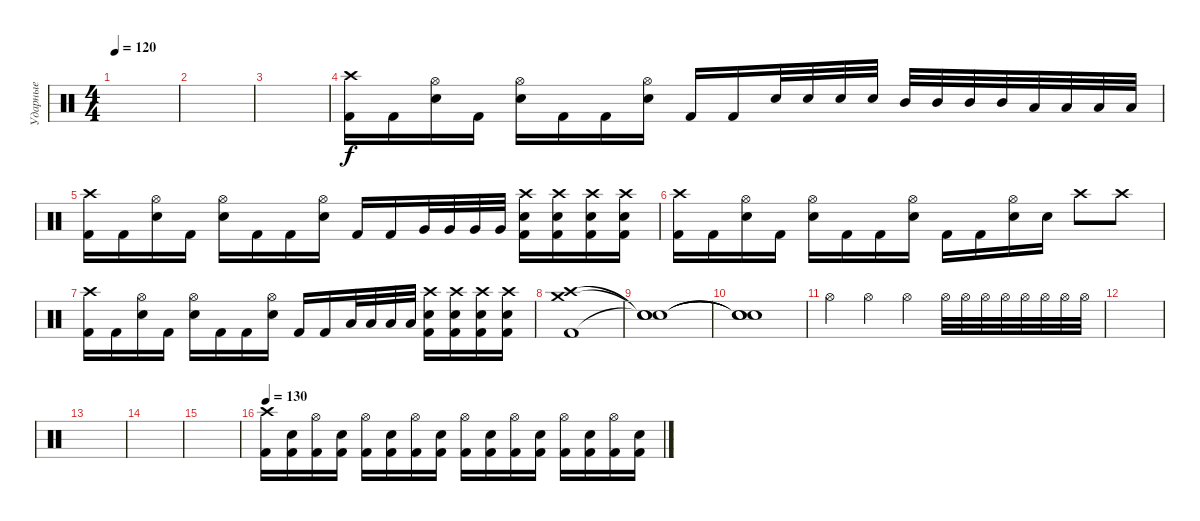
\track ("Ударные" "Ударные") {instrument percussion}
\staff {score}
\articulation defaults
\ts (4 4)
\tempo 120
\clef neutral
\ks c
|
|
|
("Crash high (hit)" "Kick (hit) 2").16 "Kick (hit) 2".16 ("Hi-Hat (open)" "Electric Snare (hit)").16 "Kick (hit) 2".16 ("Hi-Hat (open)" "Electric Snare (hit)").16 "Kick (hit) 2".16 "Kick (hit) 2".16 ("Hi-Hat (open)" "Electric Snare (hit)").16 "Kick (hit) 2".16 "Kick (hit) 2".16 "Electric Snare (hit)".32 "Electric Snare (hit)".32 "Electric Snare (hit)".32 "Electric Snare (hit)".32 "Mid Tom (hit)".32 "Mid Tom (hit)".32 "Mid Tom (hit)".32 "Mid Tom (hit)".32 "Low Tom (hit)".32 "Low Tom (hit)".32 "Low Tom (hit)".32 "Low Tom (hit)".32 |
("Crash high (hit)" "Kick (hit) 2").16 "Kick (hit) 2".16 ("Hi-Hat (open)" "Electric Snare (hit)").16 "Kick (hit) 2".16 ("Hi-Hat (open)" "Electric Snare (hit)").16 "Kick (hit) 2".16 "Kick (hit) 2".16 ("Hi-Hat (open)" "Electric Snare (hit)").16 "Kick (hit) 2".16 "Kick (hit) 2".16 "Very Low Tom (hit)".32 "Very Low Tom (hit)".32 "Very Low Tom (hit)".32 "Very Low Tom (hit)".32 ("Crash high (hit)" "Electric Snare (hit)" "Kick (hit) 2").16 ("Crash high (hit)" "Electric Snare (hit)" "Kick (hit) 2").16 ("Crash high (hit)" "Electric Snare (hit)" "Kick (hit) 2").16 ("Crash high (hit)" "Electric Snare (hit)" "Kick (hit) 2").16 |
("Crash high (hit)" "Kick (hit) 2").16 "Kick (hit) 2".16 ("Hi-Hat (open)" "Electric Snare (hit)").16 "Kick (hit) 2".16 ("Hi-Hat (open)" "Electric Snare (hit)").16 "Kick (hit) 2".16 "Kick (hit) 2".16 ("Hi-Hat (open)" "Electric Snare (hit)").16 "Kick (hit) 2".16 "Kick (hit) 2".16 ("Hi-Hat (open)" "Electric Snare (hit)").16 "Electric Snare (hit)".16 "Crash high (hit)".8 "Crash high (hit)".8 |
("Crash high (hit)" "Kick (hit) 2").16 "Kick (hit) 2".16 ("Hi-Hat (open)" "Electric Snare (hit)").16 "Kick (hit) 2".16 ("Hi-Hat (open)" "Electric Snare (hit)").16 "Kick (hit) 2".16 "Kick (hit) 2".16 ("Hi-Hat (open)" "Electric Snare (hit)").16 "Kick (hit) 2".16 "Kick (hit) 2".16 "Low Tom (hit)".32 "Low Tom (hit)".32 "Low Tom (hit)".32 "Low Tom (hit)".32 ("Crash high (hit)" "Electric Snare (hit)" "Kick (hit) 2").16 ("Crash high (hit)" "Electric Snare (hit)" "Kick (hit) 2").16 ("Crash high (hit)" "Electric Snare (hit)" "Kick (hit) 2").16 ("Crash high (hit)" "Electric Snare (hit)" "Kick (hit) 2").16 |
("Crash high (hit)" "Crash medium (hit)" "Kick (hit) 2").1 |
("Snare (hit)"{t} "Snare (hit)"{t} "Snare (hit)"{t}).1 |
("Snare (hit)"{t} "Snare (hit)"{t} "Snare (hit)"{t}).1 |
"Hi-Hat (open)".4 "Hi-Hat (open)".4 "Hi-Hat (open)".4 "Hi-Hat (open)".32 "Hi-Hat (open)".32 "Hi-Hat (open)".32 "Hi-Hat (open)".32 "Hi-Hat (open)".32 "Hi-Hat (open)".32 "Hi-Hat (open)".32 "Hi-Hat (open)".32 |
|
|
|
|
\tempo 130
("Crash high (hit)" "Kick (hit) 2").16 ("Electric Snare (hit)" "Kick (hit) 2").16 ("Hi-Hat (open)" "Kick (hit) 2").16 ("Electric Snare (hit)" "Kick (hit) 2").16 ("Hi-Hat (open)" "Kick (hit) 2").16 ("Electric Snare (hit)" "Kick (hit) 2").16 ("Hi-Hat (open)" "Kick (hit) 2").16 ("Electric Snare (hit)" "Kick (hit) 2").16 ("Hi-Hat (open)" "Kick (hit) 2").16 ("Electric Snare (hit)" "Kick (hit) 2").16 ("Hi-Hat (open)" "Kick (hit) 2").16 ("Electric Snare (hit)" "Kick (hit) 2").16 ("Hi-Hat (open)" "Kick (hit) 2").16 ("Electric Snare (hit)" "Kick (hit) 2").16 ("Hi-Hat (open)" "Kick (hit) 2").16 ("Electric Snare (hit)" "Kick (hit) 2").16
